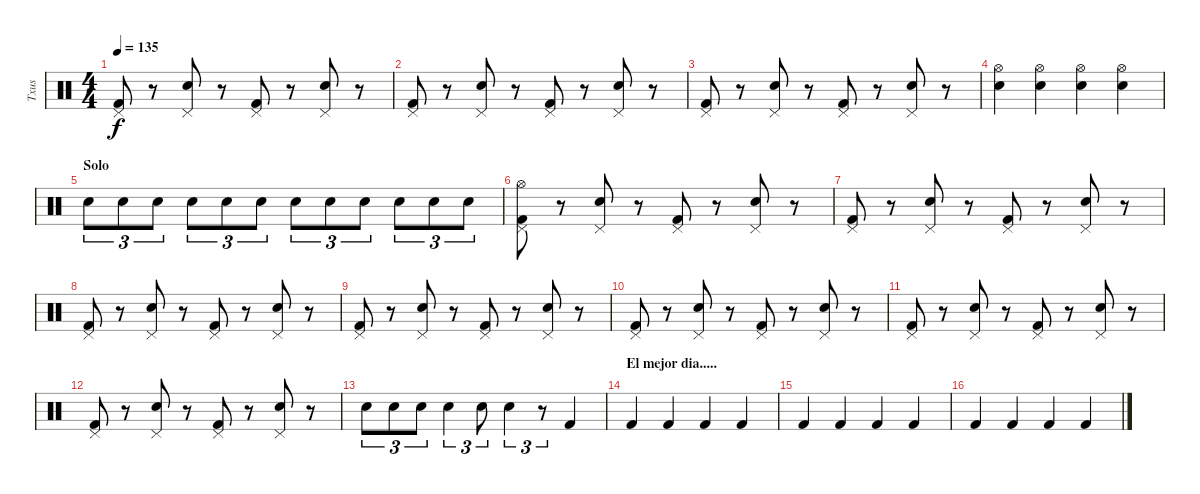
\track ("Txus" "Txus") {instrument percussion}
\staff {score}
\articulation defaults
\ts (4 4)
\tempo 135
\clef neutral
\ks c
("Pedal Hi-Hat (hit)" "Kick (hit) 2").8{dy f} r.8 ("Pedal Hi-Hat (hit)" "Snare (hit) 2").8 r.8 ("Pedal Hi-Hat (hit)" "Kick (hit) 2").8 r.8 ("Pedal Hi-Hat (hit)" "Snare (hit) 2").8 r.8 |
("Pedal Hi-Hat (hit)" "Kick (hit) 2").8 r.8 ("Pedal Hi-Hat (hit)" "Snare (hit) 2").8 r.8 ("Pedal Hi-Hat (hit)" "Kick (hit) 2").8 r.8 ("Pedal Hi-Hat (hit)" "Snare (hit) 2").8 r.8 |
("Pedal Hi-Hat (hit)" "Kick (hit) 2").8 r.8 ("Pedal Hi-Hat (hit)" "Snare (hit) 2").8 r.8 ("Pedal Hi-Hat (hit)" "Kick (hit) 2").8 r.8 ("Pedal Hi-Hat (hit)" "Snare (hit) 2").8 r.8 |
("Hi-Hat (open)" "Snare (hit) 2").4 ("Hi-Hat (open)" "Snare (hit) 2").4 ("Hi-Hat (open)" "Snare (hit) 2").4 ("Hi-Hat (open)" "Snare (hit) 2").4 |
\section ("" "Solo")
"Snare (hit) 2".8{tu (3 2) volume 9} "Snare (hit) 2".8{tu (3 2)} "Snare (hit) 2".8{tu (3 2)} "Snare (hit) 2".8{tu (3 2)} "Snare (hit) 2".8{tu (3 2)} "Snare (hit) 2".8{tu (3 2)} "Snare (hit) 2".8{tu (3 2)} "Snare (hit) 2".8{tu (3 2)} "Snare (hit) 2".8{tu (3 2)} "Snare (hit) 2".8{tu (3 2)} "Snare (hit) 2".8{tu (3 2)} "Snare (hit) 2".8{tu (3 2)} |
("Pedal Hi-Hat (hit)" "Kick (hit) 2" "Hi-Hat (open)").8{volume 13} r.8 ("Pedal Hi-Hat (hit)" "Snare (hit) 2").8 r.8 ("Pedal Hi-Hat (hit)" "Kick (hit) 2").8 r.8 ("Pedal Hi-Hat (hit)" "Snare (hit) 2").8 r.8 |
("Pedal Hi-Hat (hit)" "Kick (hit) 2").8 r.8 ("Pedal Hi-Hat (hit)" "Snare (hit) 2").8 r.8 ("Pedal Hi-Hat (hit)" "Kick (hit) 2").8 r.8 ("Pedal Hi-Hat (hit)" "Snare (hit) 2").8 r.8 |
("Pedal Hi-Hat (hit)" "Kick (hit) 2").8 r.8 ("Pedal Hi-Hat (hit)" "Snare (hit) 2").8 r.8 ("Pedal Hi-Hat (hit)" "Kick (hit) 2").8 r.8 ("Pedal Hi-Hat (hit)" "Snare (hit) 2").8 r.8 |
("Pedal Hi-Hat (hit)" "Kick (hit) 2").8 r.8 ("Pedal Hi-Hat (hit)" "Snare (hit) 2").8 r.8 ("Pedal Hi-Hat (hit)" "Kick (hit) 2").8 r.8 ("Pedal Hi-Hat (hit)" "Snare (hit) 2").8 r.8 |
("Pedal Hi-Hat (hit)" "Kick (hit) 2").8 r.8 ("Pedal Hi-Hat (hit)" "Snare (hit) 2").8 r.8 ("Pedal Hi-Hat (hit)" "Kick (hit) 2").8 r.8 ("Pedal Hi-Hat (hit)" "Snare (hit) 2").8 r.8 |
("Pedal Hi-Hat (hit)" "Kick (hit) 2").8 r.8 ("Pedal Hi-Hat (hit)" "Snare (hit) 2").8 r.8 ("Pedal Hi-Hat (hit)" "Kick (hit) 2").8 r.8 ("Pedal Hi-Hat (hit)" "Snare (hit) 2").8 r.8 |
("Pedal Hi-Hat (hit)" "Kick (hit) 2").8 r.8 ("Pedal Hi-Hat (hit)" "Snare (hit) 2").8 r.8 ("Pedal Hi-Hat (hit)" "Kick (hit) 2").8 r.8 ("Pedal Hi-Hat (hit)" "Snare (hit) 2").8 r.8 |
"Snare (hit) 2".8{tu (3 2)} "Snare (hit) 2".8{tu (3 2)} "Snare (hit) 2".8{tu (3 2)} "Snare (hit) 2".4{tu (3 2)} "Snare (hit) 2".8{tu (3 2)} "Snare (hit) 2".4{tu (3 2)} r.8{tu (3 2)} "Kick (hit) 2".4 |
\section ("" "El mejor dia.....")
"Kick (hit) 2".4 "Kick (hit) 2".4 "Kick (hit) 2".4 "Kick (hit) 2".4 |
"Kick (hit) 2".4 "Kick (hit) 2".4 "Kick (hit) 2".4 "Kick (hit) 2".4 |
"Kick (hit) 2".4 "Kick (hit) 2".4 "Kick (hit) 2".4 "Kick (hit) 2".4
